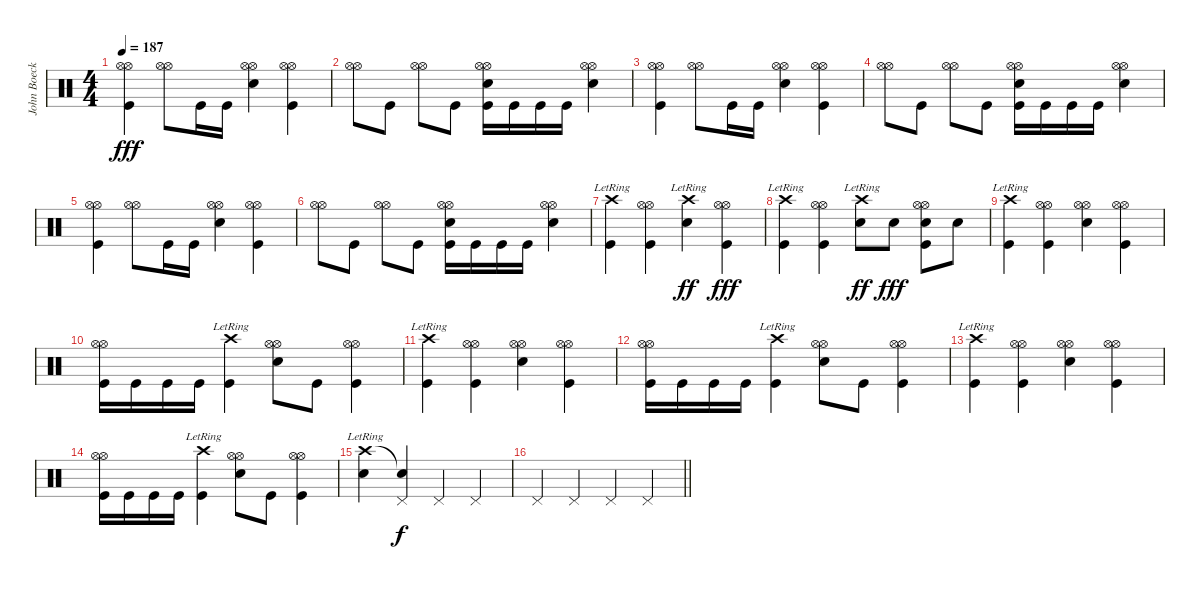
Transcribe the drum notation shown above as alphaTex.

\track ("John Boecklin - Drums" "John Boeck") {instrument percussion}
\staff {score}
\articulation defaults
\ts (4 4)
\tempo 187
\clef neutral
\ks c
("Hi-Hat (open)" "Hi-Hat (open)" "Kick (hit)").4{dy fff} ("Hi-Hat (open)" "Hi-Hat (open)").8 "Kick (hit)".16 "Kick (hit)".16 ("Snare (hit) 2" "Hi-Hat (open)" "Hi-Hat (open)").4 ("Hi-Hat (open)" "Hi-Hat (open)" "Kick (hit)").4 |
("Hi-Hat (open)" "Hi-Hat (open)").8 "Kick (hit)".8 ("Hi-Hat (open)" "Hi-Hat (open)").8 "Kick (hit)".8 ("Snare (hit) 2" "Hi-Hat (open)" "Hi-Hat (open)" "Kick (hit)").16 "Kick (hit)".16 "Kick (hit)".16 "Kick (hit)".16 ("Snare (hit) 2" "Hi-Hat (open)" "Hi-Hat (open)").4 |
("Hi-Hat (open)" "Hi-Hat (open)" "Kick (hit)").4 ("Hi-Hat (open)" "Hi-Hat (open)").8 "Kick (hit)".16 "Kick (hit)".16 ("Snare (hit) 2" "Hi-Hat (open)" "Hi-Hat (open)").4 ("Hi-Hat (open)" "Hi-Hat (open)" "Kick (hit)").4 |
("Hi-Hat (open)" "Hi-Hat (open)").8 "Kick (hit)".8 ("Hi-Hat (open)" "Hi-Hat (open)").8 "Kick (hit)".8 ("Snare (hit) 2" "Hi-Hat (open)" "Hi-Hat (open)" "Kick (hit)").16 "Kick (hit)".16 "Kick (hit)".16 "Kick (hit)".16 ("Snare (hit) 2" "Hi-Hat (open)" "Hi-Hat (open)").4 |
("Hi-Hat (open)" "Hi-Hat (open)" "Kick (hit)").4 ("Hi-Hat (open)" "Hi-Hat (open)").8 "Kick (hit)".16 "Kick (hit)".16 ("Snare (hit) 2" "Hi-Hat (open)" "Hi-Hat (open)").4 ("Hi-Hat (open)" "Hi-Hat (open)" "Kick (hit)").4 |
("Hi-Hat (open)" "Hi-Hat (open)").8 "Kick (hit)".8 ("Hi-Hat (open)" "Hi-Hat (open)").8 "Kick (hit)".8 ("Snare (hit) 2" "Hi-Hat (open)" "Hi-Hat (open)" "Kick (hit)").16 "Kick (hit)".16 "Kick (hit)".16 "Kick (hit)".16 ("Snare (hit) 2" "Hi-Hat (open)" "Hi-Hat (open)").4 |
("Crash high (hit)"{lr} "Kick (hit)").4 ("Hi-Hat (open)" "Hi-Hat (open)" "Kick (hit)").4 ("Snare (hit) 2" "Crash high (hit)"{lr}).4{dy ff} ("Hi-Hat (open)" "Hi-Hat (open)" "Kick (hit)").4{dy fff} |
("Crash high (hit)"{lr} "Kick (hit)").4 ("Hi-Hat (open)" "Hi-Hat (open)" "Kick (hit)").4 ("Snare (hit) 2" "Crash high (hit)"{lr}).8{dy ff} "Snare (hit) 2".8{dy fff} ("Snare (hit) 2" "Hi-Hat (open)" "Hi-Hat (open)" "Kick (hit)").8 "Snare (hit) 2".8 |
("Crash high (hit)"{lr} "Kick (hit)").4 ("Hi-Hat (open)" "Hi-Hat (open)" "Kick (hit)").4 ("Snare (hit) 2" "Hi-Hat (open)" "Hi-Hat (open)").4 ("Hi-Hat (open)" "Hi-Hat (open)" "Kick (hit)").4 |
("Hi-Hat (open)" "Hi-Hat (open)" "Kick (hit)").16 "Kick (hit)".16 "Kick (hit)".16 "Kick (hit)".16 ("Crash high (hit)"{lr} "Kick (hit)").4 ("Snare (hit) 2" "Hi-Hat (open)" "Hi-Hat (open)").8 "Kick (hit)".8 ("Hi-Hat (open)" "Hi-Hat (open)" "Kick (hit)").4 |
("Crash high (hit)"{lr} "Kick (hit)").4 ("Hi-Hat (open)" "Hi-Hat (open)" "Kick (hit)").4 ("Snare (hit) 2" "Hi-Hat (open)" "Hi-Hat (open)").4 ("Hi-Hat (open)" "Hi-Hat (open)" "Kick (hit)").4 |
("Hi-Hat (open)" "Hi-Hat (open)" "Kick (hit)").16 "Kick (hit)".16 "Kick (hit)".16 "Kick (hit)".16 ("Crash high (hit)"{lr} "Kick (hit)").4 ("Snare (hit) 2" "Hi-Hat (open)" "Hi-Hat (open)").8 "Kick (hit)".8 ("Hi-Hat (open)" "Hi-Hat (open)" "Kick (hit)").4 |
("Crash high (hit)"{lr} "Kick (hit)").4 ("Hi-Hat (open)" "Hi-Hat (open)" "Kick (hit)").4 ("Snare (hit) 2" "Hi-Hat (open)" "Hi-Hat (open)").4 ("Hi-Hat (open)" "Hi-Hat (open)" "Kick (hit)").4 |
("Hi-Hat (open)" "Hi-Hat (open)" "Kick (hit)").16 "Kick (hit)".16 "Kick (hit)".16 "Kick (hit)".16 ("Crash high (hit)"{lr} "Kick (hit)").4 ("Snare (hit) 2" "Hi-Hat (open)" "Hi-Hat (open)").8 "Kick (hit)".8 ("Hi-Hat (open)" "Hi-Hat (open)" "Kick (hit)").4 |
("Crash high (hit)"{lr} "Snare (hit) 2").4 ("Snare (hit)"{t} "Pedal Hi-Hat (hit)").4{dy f} "Pedal Hi-Hat (hit)".4 "Pedal Hi-Hat (hit)".4 |
\barLineRight lightlight "Pedal Hi-Hat (hit)".4 "Pedal Hi-Hat (hit)".4 "Pedal Hi-Hat (hit)".4 "Pedal Hi-Hat (hit)".4
